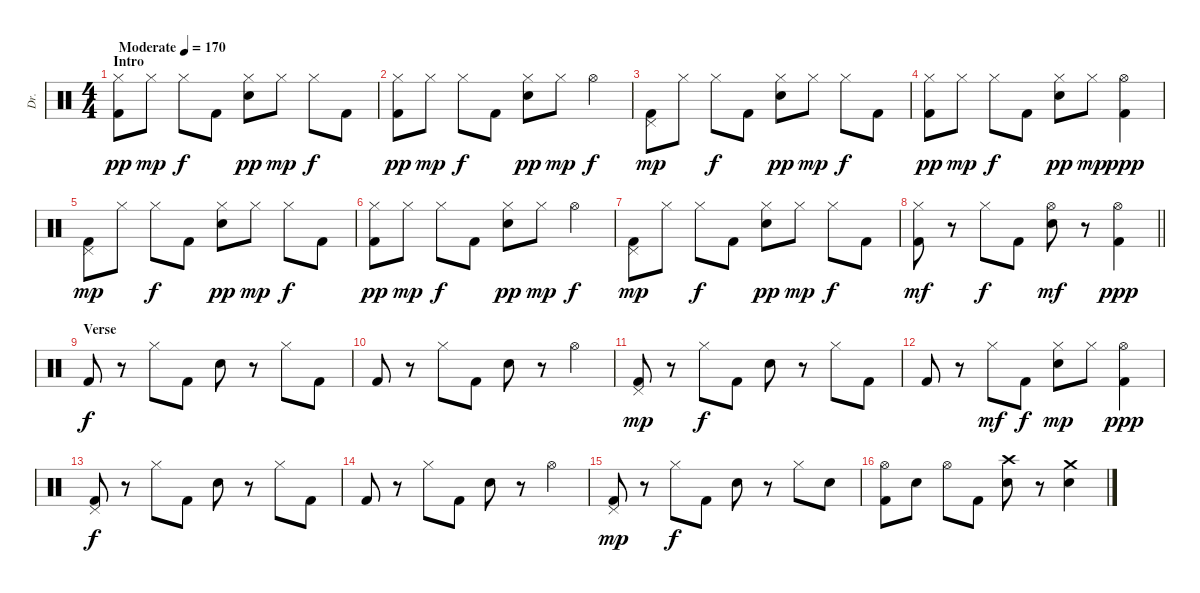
\track ("Dr." "Dr.") {instrument percussion}
\staff {score}
\articulation defaults
\ts (4 4)
\section ("" "Intro")
\tempo (170 "Moderate")
\clef neutral
\ks c
("Hi-Hat (closed)" "Kick (hit) 2").8{dy pp} "Hi-Hat (closed)".8{dy mp} "Hi-Hat (closed)".8{dy f} "Kick (hit) 2".8 ("Hi-Hat (closed)" "Electric Snare (hit)").8{dy pp} "Hi-Hat (closed)".8{dy mp} "Hi-Hat (closed)".8{dy f} "Kick (hit) 2".8 |
("Hi-Hat (closed)" "Kick (hit) 2").8{dy pp} "Hi-Hat (closed)".8{dy mp} "Hi-Hat (closed)".8{dy f} "Kick (hit) 2".8 ("Hi-Hat (closed)" "Electric Snare (hit)").8{dy pp} "Hi-Hat (closed)".8{dy mp} "Hi-Hat (open)".4{dy f} |
("Pedal Hi-Hat (hit)" "Kick (hit) 2").8{dy mp} "Hi-Hat (closed)".8 "Hi-Hat (closed)".8{dy f} "Kick (hit) 2".8 ("Hi-Hat (closed)" "Electric Snare (hit)").8{dy pp} "Hi-Hat (closed)".8{dy mp} "Hi-Hat (closed)".8{dy f} "Kick (hit) 2".8 |
("Hi-Hat (closed)" "Kick (hit) 2").8{dy pp} "Hi-Hat (closed)".8{dy mp} "Hi-Hat (closed)".8{dy f} "Kick (hit) 2".8 ("Hi-Hat (closed)" "Electric Snare (hit)").8{dy pp} "Hi-Hat (closed)".8{dy mp} ("Hi-Hat (open)" "Kick (hit) 2").4{dy ppp} |
("Pedal Hi-Hat (hit)" "Kick (hit) 2").8{dy mp} "Hi-Hat (closed)".8 "Hi-Hat (closed)".8{dy f} "Kick (hit) 2".8 ("Hi-Hat (closed)" "Electric Snare (hit)").8{dy pp} "Hi-Hat (closed)".8{dy mp} "Hi-Hat (closed)".8{dy f} "Kick (hit) 2".8 |
("Hi-Hat (closed)" "Kick (hit) 2").8{dy pp} "Hi-Hat (closed)".8{dy mp} "Hi-Hat (closed)".8{dy f} "Kick (hit) 2".8 ("Hi-Hat (closed)" "Electric Snare (hit)").8{dy pp} "Hi-Hat (closed)".8{dy mp} "Hi-Hat (open)".4{dy f} |
("Pedal Hi-Hat (hit)" "Kick (hit) 2").8{dy mp} "Hi-Hat (closed)".8 "Hi-Hat (closed)".8{dy f} "Kick (hit) 2".8 ("Hi-Hat (closed)" "Electric Snare (hit)").8{dy pp} "Hi-Hat (closed)".8{dy mp} "Hi-Hat (closed)".8{dy f} "Kick (hit) 2".8 |
\barLineRight lightlight
("Hi-Hat (closed)" "Kick (hit) 2").8{dy mf} r.8 "Hi-Hat (closed)".8{dy f} "Kick (hit) 2".8 ("Hi-Hat (open)" "Electric Snare (hit)").8{dy mf} r.8 ("Hi-Hat (open)" "Kick (hit) 2").4{dy ppp} |
\section ("" "Verse")
"Kick (hit) 2".8{dy f} r.8 "Hi-Hat (closed)".8 "Kick (hit) 2".8 "Electric Snare (hit)".8 r.8 "Hi-Hat (closed)".8 "Kick (hit) 2".8 |
"Kick (hit) 2".8 r.8 "Hi-Hat (closed)".8 "Kick (hit) 2".8 "Electric Snare (hit)".8 r.8 "Hi-Hat (open)".4 |
("Pedal Hi-Hat (hit)" "Kick (hit) 2").8{dy mp} r.8 "Hi-Hat (closed)".8{dy f} "Kick (hit) 2".8 "Electric Snare (hit)".8 r.8 "Hi-Hat (closed)".8 "Kick (hit) 2".8 |
"Kick (hit) 2".8 r.8 "Hi-Hat (closed)".8{dy mf} "Kick (hit) 2".8{dy f} ("Hi-Hat (closed)" "Electric Snare (hit)").8{dy mp} "Hi-Hat (closed)".8 ("Hi-Hat (open)" "Kick (hit) 2").4{dy ppp} |
("Pedal Hi-Hat (hit)" "Kick (hit) 2").8{dy f} r.8 "Hi-Hat (closed)".8 "Kick (hit) 2".8 "Electric Snare (hit)".8 r.8 "Hi-Hat (closed)".8 "Kick (hit) 2".8 |
"Kick (hit) 2".8 r.8 "Hi-Hat (closed)".8 "Kick (hit) 2".8 "Electric Snare (hit)".8 r.8 "Hi-Hat (open)".4 |
("Pedal Hi-Hat (hit)" "Kick (hit) 2").8{dy mp} r.8 "Hi-Hat (closed)".8{dy f} "Kick (hit) 2".8 "Electric Snare (hit)".8 r.8 "Hi-Hat (closed)".8 "Electric Snare (hit)".8 |
("Hi-Hat (open)" "Kick (hit) 2").8 "Electric Snare (hit)".8 "Hi-Hat (open)".8 "Kick (hit) 2".8 ("Crash high (hit)" "Electric Snare (hit)").8 r.8 ("Crash medium (hit)" "Electric Snare (hit)").4
